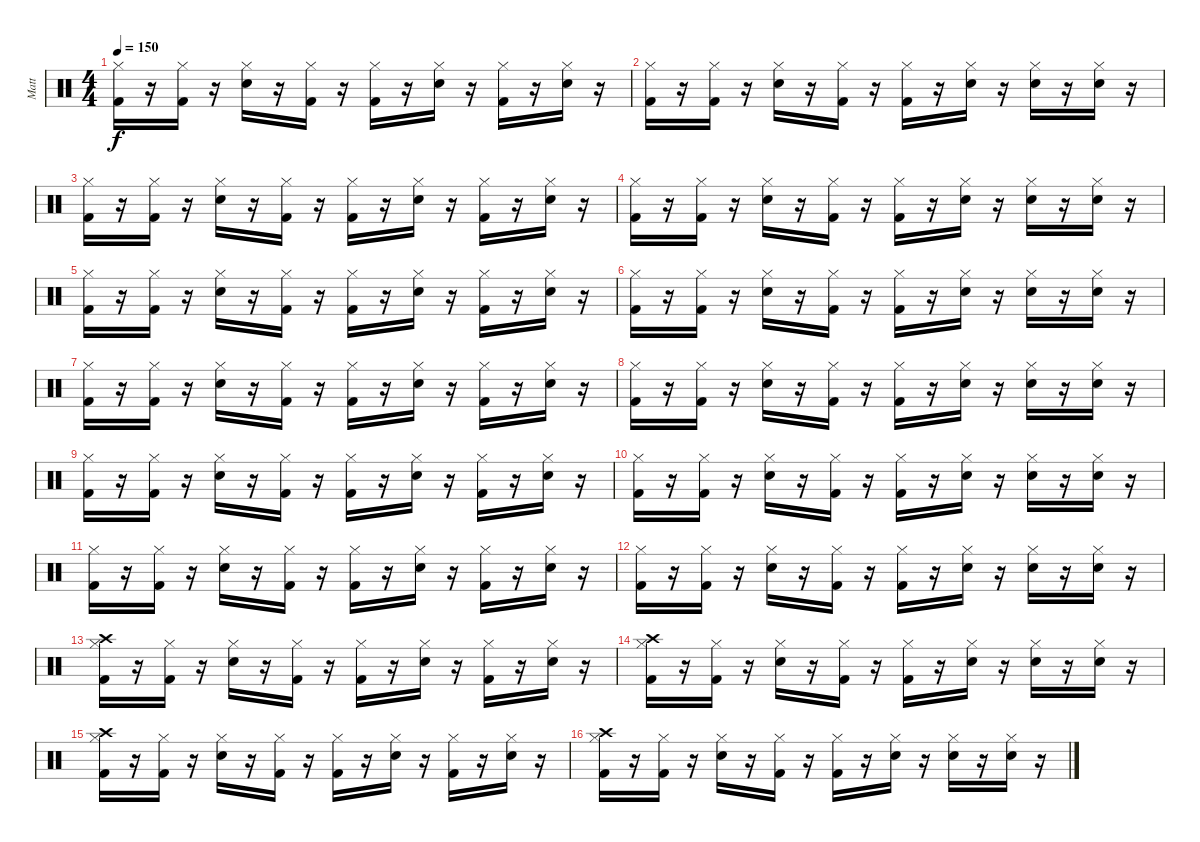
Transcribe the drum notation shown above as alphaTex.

\track ("Matt" "Matt") {instrument percussion}
\staff {score}
\articulation defaults
\ts (4 4)
\tempo 150
\clef neutral
\ks c
("Hi-Hat (closed)" "Kick (hit) 2").16{dy f} r.16 ("Hi-Hat (closed)" "Kick (hit) 2").16 r.16 ("Hi-Hat (closed)" "Snare (hit) 2").16 r.16 ("Hi-Hat (closed)" "Kick (hit) 2").16 r.16 ("Hi-Hat (closed)" "Kick (hit) 2").16 r.16 ("Hi-Hat (closed)" "Snare (hit) 2").16 r.16 ("Hi-Hat (closed)" "Kick (hit) 2").16 r.16 ("Hi-Hat (closed)" "Snare (hit) 2").16 r.16 |
("Hi-Hat (closed)" "Kick (hit) 2").16 r.16 ("Hi-Hat (closed)" "Kick (hit) 2").16 r.16 ("Hi-Hat (closed)" "Snare (hit) 2").16 r.16 ("Hi-Hat (closed)" "Kick (hit) 2").16 r.16 ("Hi-Hat (closed)" "Kick (hit) 2").16 r.16 ("Hi-Hat (closed)" "Snare (hit) 2").16 r.16 ("Hi-Hat (closed)" "Snare (hit) 2").16 r.16 ("Hi-Hat (closed)" "Snare (hit) 2").16 r.16 |
("Hi-Hat (closed)" "Kick (hit) 2").16 r.16 ("Hi-Hat (closed)" "Kick (hit) 2").16 r.16 ("Hi-Hat (closed)" "Snare (hit) 2").16 r.16 ("Hi-Hat (closed)" "Kick (hit) 2").16 r.16 ("Hi-Hat (closed)" "Kick (hit) 2").16 r.16 ("Hi-Hat (closed)" "Snare (hit) 2").16 r.16 ("Hi-Hat (closed)" "Kick (hit) 2").16 r.16 ("Hi-Hat (closed)" "Snare (hit) 2").16 r.16 |
("Hi-Hat (closed)" "Kick (hit) 2").16 r.16 ("Hi-Hat (closed)" "Kick (hit) 2").16 r.16 ("Hi-Hat (closed)" "Snare (hit) 2").16 r.16 ("Hi-Hat (closed)" "Kick (hit) 2").16 r.16 ("Hi-Hat (closed)" "Kick (hit) 2").16 r.16 ("Hi-Hat (closed)" "Snare (hit) 2").16 r.16 ("Hi-Hat (closed)" "Snare (hit) 2").16 r.16 ("Hi-Hat (closed)" "Snare (hit) 2").16 r.16 |
("Hi-Hat (closed)" "Kick (hit) 2").16 r.16 ("Hi-Hat (closed)" "Kick (hit) 2").16 r.16 ("Hi-Hat (closed)" "Snare (hit) 2").16 r.16 ("Hi-Hat (closed)" "Kick (hit) 2").16 r.16 ("Hi-Hat (closed)" "Kick (hit) 2").16 r.16 ("Hi-Hat (closed)" "Snare (hit) 2").16 r.16 ("Hi-Hat (closed)" "Kick (hit) 2").16 r.16 ("Hi-Hat (closed)" "Snare (hit) 2").16 r.16 |
("Hi-Hat (closed)" "Kick (hit) 2").16 r.16 ("Hi-Hat (closed)" "Kick (hit) 2").16 r.16 ("Hi-Hat (closed)" "Snare (hit) 2").16 r.16 ("Hi-Hat (closed)" "Kick (hit) 2").16 r.16 ("Hi-Hat (closed)" "Kick (hit) 2").16 r.16 ("Hi-Hat (closed)" "Snare (hit) 2").16 r.16 ("Hi-Hat (closed)" "Snare (hit) 2").16 r.16 ("Hi-Hat (closed)" "Snare (hit) 2").16 r.16 |
("Hi-Hat (closed)" "Kick (hit) 2").16 r.16 ("Hi-Hat (closed)" "Kick (hit) 2").16 r.16 ("Hi-Hat (closed)" "Snare (hit) 2").16 r.16 ("Hi-Hat (closed)" "Kick (hit) 2").16 r.16 ("Hi-Hat (closed)" "Kick (hit) 2").16 r.16 ("Hi-Hat (closed)" "Snare (hit) 2").16 r.16 ("Hi-Hat (closed)" "Kick (hit) 2").16 r.16 ("Hi-Hat (closed)" "Snare (hit) 2").16 r.16 |
("Hi-Hat (closed)" "Kick (hit) 2").16 r.16 ("Hi-Hat (closed)" "Kick (hit) 2").16 r.16 ("Hi-Hat (closed)" "Snare (hit) 2").16 r.16 ("Hi-Hat (closed)" "Kick (hit) 2").16 r.16 ("Hi-Hat (closed)" "Kick (hit) 2").16 r.16 ("Hi-Hat (closed)" "Snare (hit) 2").16 r.16 ("Hi-Hat (closed)" "Snare (hit) 2").16 r.16 ("Hi-Hat (closed)" "Snare (hit) 2").16 r.16 |
("Hi-Hat (closed)" "Kick (hit) 2").16 r.16 ("Hi-Hat (closed)" "Kick (hit) 2").16 r.16 ("Hi-Hat (closed)" "Snare (hit) 2").16 r.16 ("Hi-Hat (closed)" "Kick (hit) 2").16 r.16 ("Hi-Hat (closed)" "Kick (hit) 2").16 r.16 ("Hi-Hat (closed)" "Snare (hit) 2").16 r.16 ("Hi-Hat (closed)" "Kick (hit) 2").16 r.16 ("Hi-Hat (closed)" "Snare (hit) 2").16 r.16 |
("Hi-Hat (closed)" "Kick (hit) 2").16 r.16 ("Hi-Hat (closed)" "Kick (hit) 2").16 r.16 ("Hi-Hat (closed)" "Snare (hit) 2").16 r.16 ("Hi-Hat (closed)" "Kick (hit) 2").16 r.16 ("Hi-Hat (closed)" "Kick (hit) 2").16 r.16 ("Hi-Hat (closed)" "Snare (hit) 2").16 r.16 ("Hi-Hat (closed)" "Snare (hit) 2").16 r.16 ("Hi-Hat (closed)" "Snare (hit) 2").16 r.16 |
("Hi-Hat (closed)" "Kick (hit) 2").16 r.16 ("Hi-Hat (closed)" "Kick (hit) 2").16 r.16 ("Hi-Hat (closed)" "Snare (hit) 2").16 r.16 ("Hi-Hat (closed)" "Kick (hit) 2").16 r.16 ("Hi-Hat (closed)" "Kick (hit) 2").16 r.16 ("Hi-Hat (closed)" "Snare (hit) 2").16 r.16 ("Hi-Hat (closed)" "Kick (hit) 2").16 r.16 ("Hi-Hat (closed)" "Snare (hit) 2").16 r.16 |
("Hi-Hat (closed)" "Kick (hit) 2").16 r.16 ("Hi-Hat (closed)" "Kick (hit) 2").16 r.16 ("Hi-Hat (closed)" "Snare (hit) 2").16 r.16 ("Hi-Hat (closed)" "Kick (hit) 2").16 r.16 ("Hi-Hat (closed)" "Kick (hit) 2").16 r.16 ("Hi-Hat (closed)" "Snare (hit) 2").16 r.16 ("Hi-Hat (closed)" "Snare (hit) 2").16 r.16 ("Hi-Hat (closed)" "Snare (hit) 2").16 r.16 |
("Hi-Hat (closed)" "Crash high (hit)" "Kick (hit) 2").16 r.16 ("Hi-Hat (closed)" "Kick (hit) 2").16 r.16 ("Hi-Hat (closed)" "Snare (hit) 2").16 r.16 ("Hi-Hat (closed)" "Kick (hit) 2").16 r.16 ("Hi-Hat (closed)" "Kick (hit) 2").16 r.16 ("Hi-Hat (closed)" "Snare (hit) 2").16 r.16 ("Hi-Hat (closed)" "Kick (hit) 2").16 r.16 ("Hi-Hat (closed)" "Snare (hit) 2").16 r.16 |
("Hi-Hat (closed)" "Crash high (hit)" "Kick (hit) 2").16 r.16 ("Hi-Hat (closed)" "Kick (hit) 2").16 r.16 ("Hi-Hat (closed)" "Snare (hit) 2").16 r.16 ("Hi-Hat (closed)" "Kick (hit) 2").16 r.16 ("Hi-Hat (closed)" "Kick (hit) 2").16 r.16 ("Hi-Hat (closed)" "Snare (hit) 2").16 r.16 ("Hi-Hat (closed)" "Snare (hit) 2").16 r.16 ("Hi-Hat (closed)" "Snare (hit) 2").16 r.16 |
("Hi-Hat (closed)" "Crash high (hit)" "Kick (hit) 2").16 r.16 ("Hi-Hat (closed)" "Kick (hit) 2").16 r.16 ("Hi-Hat (closed)" "Snare (hit) 2").16 r.16 ("Hi-Hat (closed)" "Kick (hit) 2").16 r.16 ("Hi-Hat (closed)" "Kick (hit) 2").16 r.16 ("Hi-Hat (closed)" "Snare (hit) 2").16 r.16 ("Hi-Hat (closed)" "Kick (hit) 2").16 r.16 ("Hi-Hat (closed)" "Snare (hit) 2").16 r.16 |
("Hi-Hat (closed)" "Crash high (hit)" "Kick (hit) 2").16 r.16 ("Hi-Hat (closed)" "Kick (hit) 2").16 r.16 ("Hi-Hat (closed)" "Snare (hit) 2").16 r.16 ("Hi-Hat (closed)" "Kick (hit) 2").16 r.16 ("Hi-Hat (closed)" "Kick (hit) 2").16 r.16 ("Hi-Hat (closed)" "Snare (hit) 2").16 r.16 ("Hi-Hat (closed)" "Snare (hit) 2").16 r.16 ("Hi-Hat (closed)" "Snare (hit) 2").16 r.16
